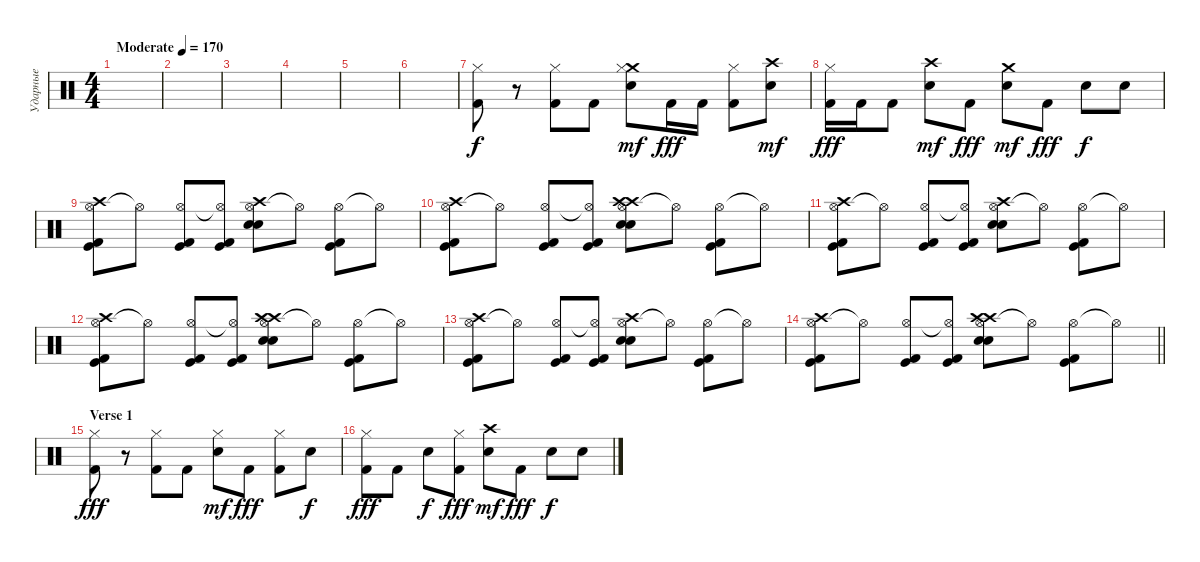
\track ("Ударные" "Ударные") {instrument percussion}
\staff {score}
\articulation defaults
\ts (4 4)
\tempo (170 "Moderate")
\clef neutral
\ks c
|
|
|
|
|
|
("Hi-Hat (closed)" "Kick (hit) 2").8 r.8 ("Hi-Hat (closed)" "Kick (hit) 2").8 "Kick (hit) 2".8 ("Crash medium (hit)" "Hi-Hat (closed)" "Electric Snare (hit)").8{dy mf} "Kick (hit) 2".16{dy fff} "Kick (hit) 2".16 ("Hi-Hat (closed)" "Kick (hit) 2").8 ("Crash high (hit)" "Electric Snare (hit)").8{dy mf} |
("Hi-Hat (closed)" "Kick (hit) 2").16{dy fff} "Kick (hit) 2".16 "Kick (hit) 2".8 ("Crash high (hit)" "Electric Snare (hit)").8{dy mf} "Kick (hit) 2".8{dy fff} ("Crash medium (hit)" "Electric Snare (hit)").8{dy mf} "Kick (hit) 2".8{dy fff} "Electric Snare (hit)".8{dy f} "Electric Snare (hit)".8 |
("Hi-Hat (open)" "Kick (hit)" "Kick (hit) 2" "Crash high (hit)").8 "Hi-Hat (open)"{t}.8 ("Hi-Hat (open)" "Kick (hit)" "Kick (hit) 2").8 ("Hi-Hat (open)"{t} "Kick (hit)" "Kick (hit) 2").8 ("Hi-Hat (open)" "Electric Snare (hit)" "Electric Snare (hit)" "Crash high (hit)").8 "Hi-Hat (open)"{t}.8 ("Hi-Hat (open)" "Kick (hit)" "Kick (hit) 2").8 "Hi-Hat (open)"{t}.8 |
("Hi-Hat (open)" "Kick (hit)" "Kick (hit) 2" "Crash high (hit)").8 "Hi-Hat (open)"{t}.8 ("Hi-Hat (open)" "Kick (hit)" "Kick (hit) 2").8 ("Hi-Hat (open)"{t} "Kick (hit)" "Kick (hit) 2").8 ("Hi-Hat (open)" "Electric Snare (hit)" "Electric Snare (hit)" "Crash high (hit)" "Crash high (hit)").8 "Hi-Hat (open)"{t}.8 ("Hi-Hat (open)" "Kick (hit)" "Kick (hit) 2").8 "Hi-Hat (open)"{t}.8 |
("Hi-Hat (open)" "Kick (hit)" "Kick (hit) 2" "Crash high (hit)").8 "Hi-Hat (open)"{t}.8 ("Hi-Hat (open)" "Kick (hit)" "Kick (hit) 2").8 ("Hi-Hat (open)"{t} "Kick (hit)" "Kick (hit) 2").8 ("Hi-Hat (open)" "Electric Snare (hit)" "Electric Snare (hit)" "Crash high (hit)").8 "Hi-Hat (open)"{t}.8 ("Hi-Hat (open)" "Kick (hit)" "Kick (hit) 2").8 "Hi-Hat (open)"{t}.8 |
("Hi-Hat (open)" "Kick (hit)" "Kick (hit) 2" "Crash high (hit)").8 "Hi-Hat (open)"{t}.8 ("Hi-Hat (open)" "Kick (hit)" "Kick (hit) 2").8 ("Hi-Hat (open)"{t} "Kick (hit)" "Kick (hit) 2").8 ("Hi-Hat (open)" "Electric Snare (hit)" "Electric Snare (hit)" "Crash high (hit)" "Crash high (hit)").8 "Hi-Hat (open)"{t}.8 ("Hi-Hat (open)" "Kick (hit)" "Kick (hit) 2").8 "Hi-Hat (open)"{t}.8 |
("Hi-Hat (open)" "Kick (hit)" "Kick (hit) 2" "Crash high (hit)").8 "Hi-Hat (open)"{t}.8 ("Hi-Hat (open)" "Kick (hit)" "Kick (hit) 2").8 ("Hi-Hat (open)"{t} "Kick (hit)" "Kick (hit) 2").8 ("Hi-Hat (open)" "Electric Snare (hit)" "Electric Snare (hit)" "Crash high (hit)").8 "Hi-Hat (open)"{t}.8 ("Hi-Hat (open)" "Kick (hit)" "Kick (hit) 2").8 "Hi-Hat (open)"{t}.8 |
\barLineRight lightlight
("Hi-Hat (open)" "Kick (hit)" "Kick (hit) 2" "Crash high (hit)").8 "Hi-Hat (open)"{t}.8 ("Hi-Hat (open)" "Kick (hit)" "Kick (hit) 2").8 ("Hi-Hat (open)"{t} "Kick (hit)" "Kick (hit) 2").8 ("Hi-Hat (open)" "Electric Snare (hit)" "Electric Snare (hit)" "Crash high (hit)" "Crash high (hit)").8 "Hi-Hat (open)"{t}.8 ("Hi-Hat (open)" "Kick (hit)" "Kick (hit) 2").8 "Hi-Hat (open)"{t}.8 |
\section ("" "Verse 1")
("Hi-Hat (closed)" "Kick (hit) 2").8{dy fff} r.8 ("Hi-Hat (closed)" "Kick (hit) 2").8 "Kick (hit) 2".8 ("Hi-Hat (closed)" "Electric Snare (hit)").8{dy mf} "Kick (hit) 2".8{dy fff} ("Hi-Hat (closed)" "Kick (hit) 2").8 "Electric Snare (hit)".8{dy f} |
("Hi-Hat (closed)" "Kick (hit) 2").8{dy fff} "Kick (hit) 2".8 "Electric Snare (hit)".8{dy f} ("Hi-Hat (closed)" "Kick (hit) 2").8{dy fff} ("Crash high (hit)" "Electric Snare (hit)").8{dy mf} "Kick (hit) 2".8{dy fff} "Electric Snare (hit)".8{dy f} "Electric Snare (hit)".8
